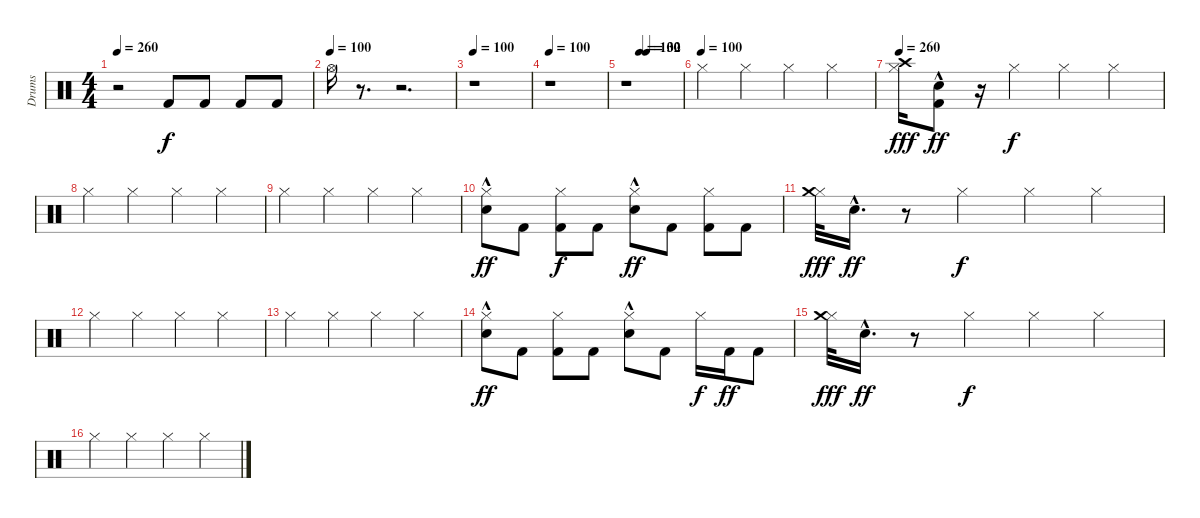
\track ("Drums" "Drums") {instrument percussion}
\staff {score}
\articulation defaults
\ts (4 4)
\tempo 260
\tempo 100
\tempo 260
\clef neutral
\ks c
r.2{dy f} "Kick (hit) 2".8 "Kick (hit) 2".8 "Kick (hit) 2".8 "Kick (hit) 2".8 |
\tempo (100)
"Hi-Hat (open)".16 r.8{d} r.2{d} |
\tempo 100
r.1 |
\tempo 100
r.1 |
\tempo (100 0.25)
\tempo (32 0.375)
r.1 |
\tempo (100)
"Hi-Hat (closed)".4 "Hi-Hat (closed)".4 "Hi-Hat (closed)".4 "Hi-Hat (closed)".4 |
\tempo 260
("Hi-Hat (closed)" "Crash high (hit)").16{dy fff} ("Kick (hit) 2" "Snare (hit) 2"{hac}).8{dy ff} r.16 "Hi-Hat (closed)".4{dy f} "Hi-Hat (closed)".4 "Hi-Hat (closed)".4 |
"Hi-Hat (closed)".4 "Hi-Hat (closed)".4 "Hi-Hat (closed)".4 "Hi-Hat (closed)".4 |
"Hi-Hat (closed)".4 "Hi-Hat (closed)".4 "Hi-Hat (closed)".4 "Hi-Hat (closed)".4 |
("Hi-Hat (closed)" "Snare (hit) 2"{hac}).8{dy ff} "Kick (hit) 2".8 ("Hi-Hat (closed)" "Kick (hit) 2").8{dy f} "Kick (hit) 2".8 ("Hi-Hat (closed)" "Snare (hit) 2"{hac}).8{dy ff} "Kick (hit) 2".8 ("Hi-Hat (closed)" "Kick (hit) 2").8 "Kick (hit) 2".8 |
("Hi-Hat (closed)" "Crash medium (hit)").32{dy fff} "Snare (hit) 2"{hac}.16{d dy ff} r.8 "Hi-Hat (closed)".4{dy f} "Hi-Hat (closed)".4 "Hi-Hat (closed)".4 |
"Hi-Hat (closed)".4 "Hi-Hat (closed)".4 "Hi-Hat (closed)".4 "Hi-Hat (closed)".4 |
"Hi-Hat (closed)".4 "Hi-Hat (closed)".4 "Hi-Hat (closed)".4 "Hi-Hat (closed)".4 |
("Hi-Hat (closed)" "Snare (hit) 2"{hac}).8{dy ff} "Kick (hit) 2".8 ("Kick (hit) 2" "Hi-Hat (closed)").8 "Kick (hit) 2".8 ("Hi-Hat (closed)" "Snare (hit) 2"{hac}).8 "Kick (hit) 2".8 "Hi-Hat (closed)".16{dy f} "Kick (hit) 2".16{dy ff} "Kick (hit) 2".8 |
("Hi-Hat (closed)" "Crash medium (hit)").32{dy fff} "Snare (hit) 2"{hac}.16{d dy ff} r.8 "Hi-Hat (closed)".4{dy f} "Hi-Hat (closed)".4 "Hi-Hat (closed)".4 |
"Hi-Hat (closed)".4 "Hi-Hat (closed)".4 "Hi-Hat (closed)".4 "Hi-Hat (closed)".4
